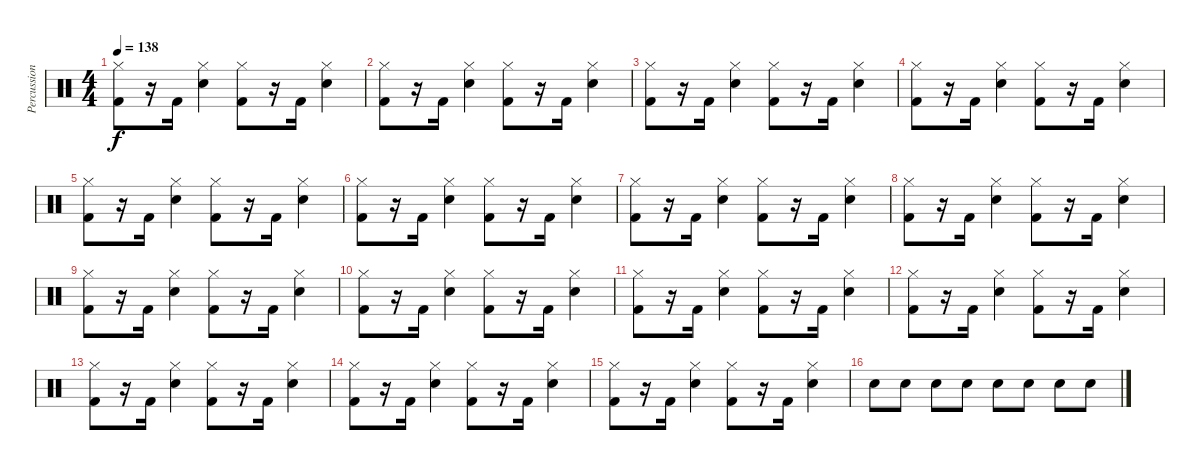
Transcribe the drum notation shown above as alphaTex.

\track ("Percussions" "Percussion") {instrument percussion}
\staff {score}
\articulation defaults
\ts (4 4)
\tempo 138
\clef neutral
\ks c
("Hi-Hat (closed)" "Kick (hit) 2").8{dy f} r.16 "Kick (hit) 2".16 ("Hi-Hat (closed)" "Snare (hit) 2").4 ("Hi-Hat (closed)" "Kick (hit) 2").8 r.16 "Kick (hit) 2".16 ("Hi-Hat (closed)" "Snare (hit) 2").4 |
("Hi-Hat (closed)" "Kick (hit) 2").8 r.16 "Kick (hit) 2".16 ("Hi-Hat (closed)" "Snare (hit) 2").4 ("Hi-Hat (closed)" "Kick (hit) 2").8 r.16 "Kick (hit) 2".16 ("Hi-Hat (closed)" "Snare (hit) 2").4 |
("Hi-Hat (closed)" "Kick (hit) 2").8 r.16 "Kick (hit) 2".16 ("Hi-Hat (closed)" "Snare (hit) 2").4 ("Hi-Hat (closed)" "Kick (hit) 2").8 r.16 "Kick (hit) 2".16 ("Hi-Hat (closed)" "Snare (hit) 2").4 |
("Hi-Hat (closed)" "Kick (hit) 2").8 r.16 "Kick (hit) 2".16 ("Hi-Hat (closed)" "Snare (hit) 2").4 ("Hi-Hat (closed)" "Kick (hit) 2").8 r.16 "Kick (hit) 2".16 ("Hi-Hat (closed)" "Snare (hit) 2").4 |
("Hi-Hat (closed)" "Kick (hit) 2").8 r.16 "Kick (hit) 2".16 ("Hi-Hat (closed)" "Snare (hit) 2").4 ("Hi-Hat (closed)" "Kick (hit) 2").8 r.16 "Kick (hit) 2".16 ("Hi-Hat (closed)" "Snare (hit) 2").4 |
("Hi-Hat (closed)" "Kick (hit) 2").8 r.16 "Kick (hit) 2".16 ("Hi-Hat (closed)" "Snare (hit) 2").4 ("Hi-Hat (closed)" "Kick (hit) 2").8 r.16 "Kick (hit) 2".16 ("Hi-Hat (closed)" "Snare (hit) 2").4 |
("Hi-Hat (closed)" "Kick (hit) 2").8 r.16 "Kick (hit) 2".16 ("Hi-Hat (closed)" "Snare (hit) 2").4 ("Hi-Hat (closed)" "Kick (hit) 2").8 r.16 "Kick (hit) 2".16 ("Hi-Hat (closed)" "Snare (hit) 2").4 |
("Hi-Hat (closed)" "Kick (hit) 2").8 r.16 "Kick (hit) 2".16 ("Hi-Hat (closed)" "Snare (hit) 2").4 ("Hi-Hat (closed)" "Kick (hit) 2").8 r.16 "Kick (hit) 2".16 ("Hi-Hat (closed)" "Snare (hit) 2").4 |
("Hi-Hat (closed)" "Kick (hit) 2").8 r.16 "Kick (hit) 2".16 ("Hi-Hat (closed)" "Snare (hit) 2").4 ("Hi-Hat (closed)" "Kick (hit) 2").8 r.16 "Kick (hit) 2".16 ("Hi-Hat (closed)" "Snare (hit) 2").4 |
("Hi-Hat (closed)" "Kick (hit) 2").8 r.16 "Kick (hit) 2".16 ("Hi-Hat (closed)" "Snare (hit) 2").4 ("Hi-Hat (closed)" "Kick (hit) 2").8 r.16 "Kick (hit) 2".16 ("Hi-Hat (closed)" "Snare (hit) 2").4 |
("Hi-Hat (closed)" "Kick (hit) 2").8 r.16 "Kick (hit) 2".16 ("Hi-Hat (closed)" "Snare (hit) 2").4 ("Hi-Hat (closed)" "Kick (hit) 2").8 r.16 "Kick (hit) 2".16 ("Hi-Hat (closed)" "Snare (hit) 2").4 |
("Hi-Hat (closed)" "Kick (hit) 2").8 r.16 "Kick (hit) 2".16 ("Hi-Hat (closed)" "Snare (hit) 2").4 ("Hi-Hat (closed)" "Kick (hit) 2").8 r.16 "Kick (hit) 2".16 ("Hi-Hat (closed)" "Snare (hit) 2").4 |
("Hi-Hat (closed)" "Kick (hit) 2").8 r.16 "Kick (hit) 2".16 ("Hi-Hat (closed)" "Snare (hit) 2").4 ("Hi-Hat (closed)" "Kick (hit) 2").8 r.16 "Kick (hit) 2".16 ("Hi-Hat (closed)" "Snare (hit) 2").4 |
("Hi-Hat (closed)" "Kick (hit) 2").8 r.16 "Kick (hit) 2".16 ("Hi-Hat (closed)" "Snare (hit) 2").4 ("Hi-Hat (closed)" "Kick (hit) 2").8 r.16 "Kick (hit) 2".16 ("Hi-Hat (closed)" "Snare (hit) 2").4 |
("Hi-Hat (closed)" "Kick (hit) 2").8 r.16 "Kick (hit) 2".16 ("Hi-Hat (closed)" "Snare (hit) 2").4 ("Hi-Hat (closed)" "Kick (hit) 2").8 r.16 "Kick (hit) 2".16 ("Hi-Hat (closed)" "Snare (hit) 2").4 |
"Snare (hit) 2".8 "Snare (hit) 2".8 "Snare (hit) 2".8 "Snare (hit) 2".8 "Snare (hit) 2".8 "Snare (hit) 2".8 "Snare (hit) 2".8 "Snare (hit) 2".8
